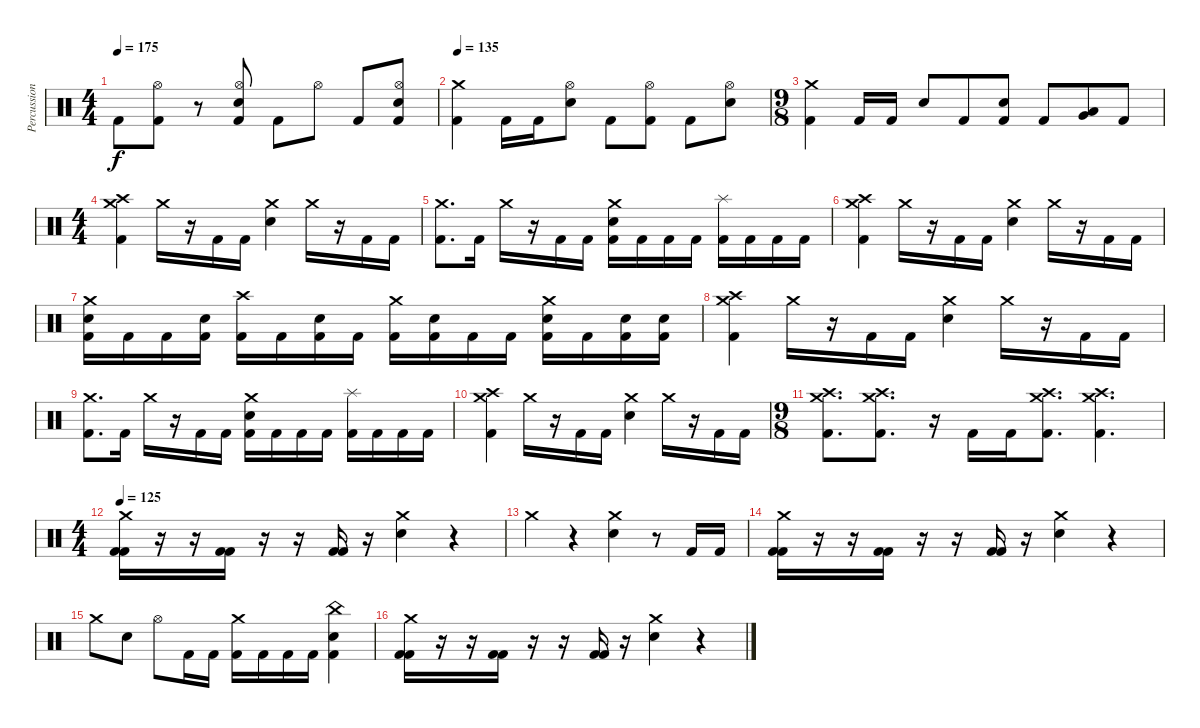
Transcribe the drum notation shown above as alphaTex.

\track ("Percussion" "Percussion") {instrument percussion}
\staff {score}
\articulation defaults
\ts (4 4)
\tempo 175
\clef neutral
\ks c "Kick (hit) 2".8{dy f}
("Hi-Hat (open)" "Kick (hit) 2").8 r.8 ("Hi-Hat (open)" "Electric Snare (hit)" "Kick (hit) 2").8 "Kick (hit) 2".8 "Hi-Hat (open)".8 "Kick (hit) 2".8 ("Hi-Hat (open)" "Electric Snare (hit)" "Kick (hit) 2").8 |
\tempo 135
("Crash medium (hit)" "Kick (hit) 2").4 "Kick (hit) 2".16 "Kick (hit) 2".16 ("Hi-Hat (open)" "Electric Snare (hit)").8 "Kick (hit) 2".8 ("Hi-Hat (open)" "Kick (hit) 2").8 "Kick (hit) 2".8 ("Hi-Hat (open)" "Electric Snare (hit)").8 |
\ts (9 8)
("Crash medium (hit)" "Kick (hit) 2").4 "Kick (hit) 2".16 "Kick (hit) 2".16 "Electric Snare (hit)".8 "Kick (hit) 2".8 ("Electric Snare (hit)" "Kick (hit) 2").8 "Kick (hit) 2".8 ("Very Low Tom (hit)" "Low Floor Tom (hit)").8 "Kick (hit) 2".8 |
\ts (4 4)
("Crash medium (hit)" "Crash high (hit)" "Kick (hit) 2").4 "Crash medium (hit)".16 r.16 "Kick (hit) 2".16 "Kick (hit) 2".16 ("Crash medium (hit)" "Electric Snare (hit)").4 "Crash medium (hit)".16 r.16 "Kick (hit) 2".16 "Kick (hit) 2".16 |
("Crash medium (hit)" "Kick (hit) 2").8{d} "Kick (hit) 2".16 "Crash medium (hit)".16 r.16 "Kick (hit) 2".16 "Kick (hit) 2".16 ("Crash medium (hit)" "Electric Snare (hit)" "Kick (hit) 2").16 "Kick (hit) 2".16 "Kick (hit) 2".16 "Kick (hit) 2".16 ("Splash (hit)" "Kick (hit) 2").16 "Kick (hit) 2".16 "Kick (hit) 2".16 "Kick (hit) 2".16 |
("Crash medium (hit)" "Crash high (hit)" "Kick (hit) 2").4 "Crash medium (hit)".16 r.16 "Kick (hit) 2".16 "Kick (hit) 2".16 ("Crash medium (hit)" "Electric Snare (hit)").4 "Crash medium (hit)".16 r.16 "Kick (hit) 2".16 "Kick (hit) 2".16 |
("Crash medium (hit)" "Electric Snare (hit)" "Kick (hit) 2").16 "Kick (hit) 2".16 "Kick (hit) 2".16 ("Electric Snare (hit)" "Kick (hit) 2").16 ("Crash high (hit)" "Kick (hit) 2").16 "Kick (hit) 2".16 ("Electric Snare (hit)" "Kick (hit) 2").16 "Kick (hit) 2".16 ("Crash medium (hit)" "Kick (hit) 2").16 ("Electric Snare (hit)" "Kick (hit) 2").16 "Kick (hit) 2".16 "Kick (hit) 2".16 ("Crash medium (hit)" "Electric Snare (hit)" "Kick (hit) 2").16 "Kick (hit) 2".16 ("Electric Snare (hit)" "Kick (hit) 2").16 ("Electric Snare (hit)" "Kick (hit) 2").16 |
("Crash medium (hit)" "Crash high (hit)" "Kick (hit) 2").4 "Crash medium (hit)".16 r.16 "Kick (hit) 2".16 "Kick (hit) 2".16 ("Crash medium (hit)" "Electric Snare (hit)").4 "Crash medium (hit)".16 r.16 "Kick (hit) 2".16 "Kick (hit) 2".16 |
("Crash medium (hit)" "Kick (hit) 2").8{d} "Kick (hit) 2".16 "Crash medium (hit)".16 r.16 "Kick (hit) 2".16 "Kick (hit) 2".16 ("Crash medium (hit)" "Electric Snare (hit)" "Kick (hit) 2").16 "Kick (hit) 2".16 "Kick (hit) 2".16 "Kick (hit) 2".16 ("Splash (hit)" "Kick (hit) 2").16 "Kick (hit) 2".16 "Kick (hit) 2".16 "Kick (hit) 2".16 |
("Crash medium (hit)" "Crash high (hit)" "Kick (hit) 2").4 "Crash medium (hit)".16 r.16 "Kick (hit) 2".16 "Kick (hit) 2".16 ("Crash medium (hit)" "Electric Snare (hit)").4 "Crash medium (hit)".16 r.16 "Kick (hit) 2".16 "Kick (hit) 2".16 |
\ts (9 8)
("Crash medium (hit)" "Crash high (hit)" "Kick (hit) 2").8{d} ("Crash medium (hit)" "Crash high (hit)" "Kick (hit) 2").8{d} r.16 "Kick (hit) 2".16 "Kick (hit) 2".16 ("Crash medium (hit)" "Crash high (hit)" "Kick (hit) 2").8{d} ("Crash medium (hit)" "Crash high (hit)" "Kick (hit) 2").4{d} |
\ts (4 4)
\tempo 125
("Crash medium (hit)" "Kick (hit) 2" "Kick (hit) 2").16 r.16 r.16 ("Kick (hit) 2" "Kick (hit) 2").16 r.16 r.16 ("Kick (hit) 2" "Kick (hit) 2").16 r.16 ("Crash medium (hit)" "Electric Snare (hit)").4 r.4 |
"Crash medium (hit)".4 r.4 ("Crash medium (hit)" "Electric Snare (hit)").4 r.8 "Kick (hit) 2".16 "Kick (hit) 2".16 |
("Crash medium (hit)" "Kick (hit) 2" "Kick (hit) 2").16 r.16 r.16 ("Kick (hit) 2" "Kick (hit) 2").16 r.16 r.16 ("Kick (hit) 2" "Kick (hit) 2").16 r.16 ("Crash medium (hit)" "Electric Snare (hit)").4 r.4 |
"Crash medium (hit)".8 "Electric Snare (hit)".8 "Hi-Hat (open)".8 "Kick (hit) 2".16 "Kick (hit) 2".16 ("Crash medium (hit)" "Kick (hit) 2").16 "Kick (hit) 2".16 "Kick (hit) 2".16 "Kick (hit) 2".16 ("China (hit)" "Electric Snare (hit)" "Kick (hit) 2").4 |
("Crash medium (hit)" "Kick (hit) 2" "Kick (hit) 2").16 r.16 r.16 ("Kick (hit) 2" "Kick (hit) 2").16 r.16 r.16 ("Kick (hit) 2" "Kick (hit) 2").16 r.16 ("Crash medium (hit)" "Electric Snare (hit)").4 r.4
